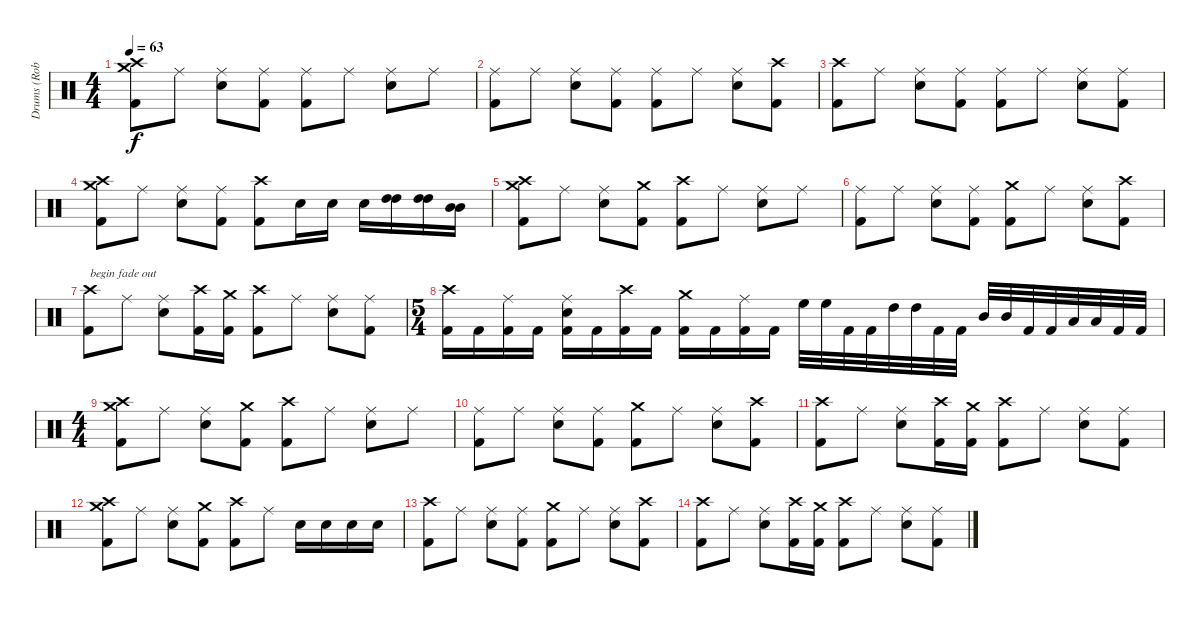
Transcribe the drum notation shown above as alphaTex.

\track ("Drums (Rob Affuso)" "Drums (Rob") {instrument percussion}
\staff {score}
\articulation defaults
\ts (4 4)
\tempo 63
\clef neutral
\ks c
("Crash medium (hit)" "Crash high (hit)" "Kick (hit) 2").8{dy f} "Ride (middle)".8 ("Ride (middle)" "Electric Snare (hit)").8 ("Ride (middle)" "Kick (hit) 2").8 ("Ride (middle)" "Kick (hit) 2").8 "Ride (middle)".8 ("Ride (middle)" "Electric Snare (hit)").8 "Ride (middle)".8 |
("Ride (middle)" "Kick (hit) 2").8 "Ride (middle)".8 ("Ride (middle)" "Electric Snare (hit)").8 ("Ride (middle)" "Kick (hit) 2").8 ("Ride (middle)" "Kick (hit) 2").8 "Ride (middle)".8 ("Ride (middle)" "Electric Snare (hit)").8 ("Crash high (hit)" "Kick (hit) 2").8 |
("Crash high (hit)" "Kick (hit) 2").8 "Ride (middle)".8 ("Ride (middle)" "Electric Snare (hit)").8 ("Ride (middle)" "Kick (hit) 2").8 ("Ride (middle)" "Kick (hit) 2").8 "Ride (middle)".8 ("Ride (middle)" "Electric Snare (hit)").8 ("Ride (middle)" "Kick (hit) 2").8 |
("Crash medium (hit)" "Crash high (hit)" "Kick (hit) 2").8 "Ride (middle)".8 ("Ride (middle)" "Electric Snare (hit)").8 ("Ride (middle)" "Kick (hit) 2").8 ("Crash high (hit)" "Kick (hit) 2").8 "Electric Snare (hit)".16 "Electric Snare (hit)".16 "Electric Snare (hit)".16 ("High Tom (hit)" "High Tom (hit)").16 ("High Tom (hit)" "High Tom (hit)").16 ("Mid Tom (hit)" "Mid Tom (hit)").16 |
("Crash medium (hit)" "Crash high (hit)" "Kick (hit) 2").8 "Ride (middle)".8 ("Ride (middle)" "Electric Snare (hit)").8 ("Crash medium (hit)" "Kick (hit) 2").8 ("Crash high (hit)" "Kick (hit) 2").8 "Ride (middle)".8 ("Ride (middle)" "Electric Snare (hit)").8 "Ride (middle)".8 |
("Ride (middle)" "Kick (hit) 2").8 "Ride (middle)".8 ("Ride (middle)" "Electric Snare (hit)").8 ("Ride (middle)" "Kick (hit) 2").8 ("Crash medium (hit)" "Kick (hit) 2").8 "Ride (middle)".8 ("Ride (middle)" "Electric Snare (hit)").8 ("Crash high (hit)" "Kick (hit) 2").8 |
("Crash high (hit)" "Kick (hit) 2").8{txt "begin fade out"} "Ride (middle)".8 ("Ride (middle)" "Electric Snare (hit)").8 ("Crash high (hit)" "Kick (hit) 2").16 ("Crash medium (hit)" "Kick (hit) 2").16 ("Crash high (hit)" "Kick (hit) 2").8 "Ride (middle)".8 ("Ride (middle)" "Electric Snare (hit)").8 ("Ride (middle)" "Kick (hit) 2").8 |
\ts (5 4)
("Crash high (hit)" "Kick (hit) 2").16 "Kick (hit) 2".16 ("Ride (middle)" "Kick (hit) 2").16 "Kick (hit) 2".16 ("Ride (middle)" "Electric Snare (hit)" "Kick (hit) 2").16 "Kick (hit) 2".16 ("Crash high (hit)" "Kick (hit) 2").16 "Kick (hit) 2".16 ("Crash medium (hit)" "Kick (hit) 2").16 "Kick (hit) 2".16 ("Ride (middle)" "Kick (hit) 2").16 "Kick (hit) 2".16 "High Floor Tom (hit)".32 "High Floor Tom (hit)".32 "Kick (hit) 2".32 "Kick (hit) 2".32 "High Tom (hit)".32 "High Tom (hit)".32 "Kick (hit) 2".32 "Kick (hit) 2".32 "Mid Tom (hit)".32 "Mid Tom (hit)".32 "Kick (hit) 2".32 "Kick (hit) 2".32 "Low Tom (hit)".32 "Low Tom (hit)".32 "Kick (hit) 2".32 "Kick (hit) 2".32 |
\ts (4 4)
("Crash medium (hit)" "Crash high (hit)" "Kick (hit) 2").8 "Ride (middle)".8 ("Ride (middle)" "Electric Snare (hit)").8 ("Crash medium (hit)" "Kick (hit) 2").8 ("Crash high (hit)" "Kick (hit) 2").8 "Ride (middle)".8 ("Ride (middle)" "Electric Snare (hit)").8 "Ride (middle)".8 |
("Ride (middle)" "Kick (hit) 2").8 "Ride (middle)".8 ("Ride (middle)" "Electric Snare (hit)").8 ("Ride (middle)" "Kick (hit) 2").8 ("Crash medium (hit)" "Kick (hit) 2").8 "Ride (middle)".8 ("Ride (middle)" "Electric Snare (hit)").8 ("Crash high (hit)" "Kick (hit) 2").8 |
("Crash high (hit)" "Kick (hit) 2").8 "Ride (middle)".8 ("Ride (middle)" "Electric Snare (hit)").8 ("Crash high (hit)" "Kick (hit) 2").16 ("Crash medium (hit)" "Kick (hit) 2").16 ("Crash high (hit)" "Kick (hit) 2").8 "Ride (middle)".8 ("Ride (middle)" "Electric Snare (hit)").8 ("Ride (middle)" "Kick (hit) 2").8 |
("Crash medium (hit)" "Crash high (hit)" "Kick (hit) 2").8 "Ride (middle)".8 ("Ride (middle)" "Electric Snare (hit)").8 ("Crash medium (hit)" "Kick (hit) 2").8 ("Crash high (hit)" "Kick (hit) 2").8 "Ride (middle)".8 "Electric Snare (hit)".16 "Electric Snare (hit)".16 "Electric Snare (hit)".16 "Electric Snare (hit)".16 |
("Crash high (hit)" "Kick (hit) 2").8 "Ride (middle)".8 ("Ride (middle)" "Electric Snare (hit)").8 ("Ride (middle)" "Kick (hit) 2").8 ("Crash medium (hit)" "Kick (hit) 2").8 "Ride (middle)".8 ("Ride (middle)" "Electric Snare (hit)").8 ("Crash high (hit)" "Kick (hit) 2").8 |
("Crash high (hit)" "Kick (hit) 2").8 "Ride (middle)".8 ("Ride (middle)" "Electric Snare (hit)").8 ("Crash high (hit)" "Kick (hit) 2").16 ("Crash medium (hit)" "Kick (hit) 2").16 ("Crash high (hit)" "Kick (hit) 2").8 "Ride (middle)".8 ("Ride (middle)" "Electric Snare (hit)").8 ("Ride (middle)" "Kick (hit) 2").8
